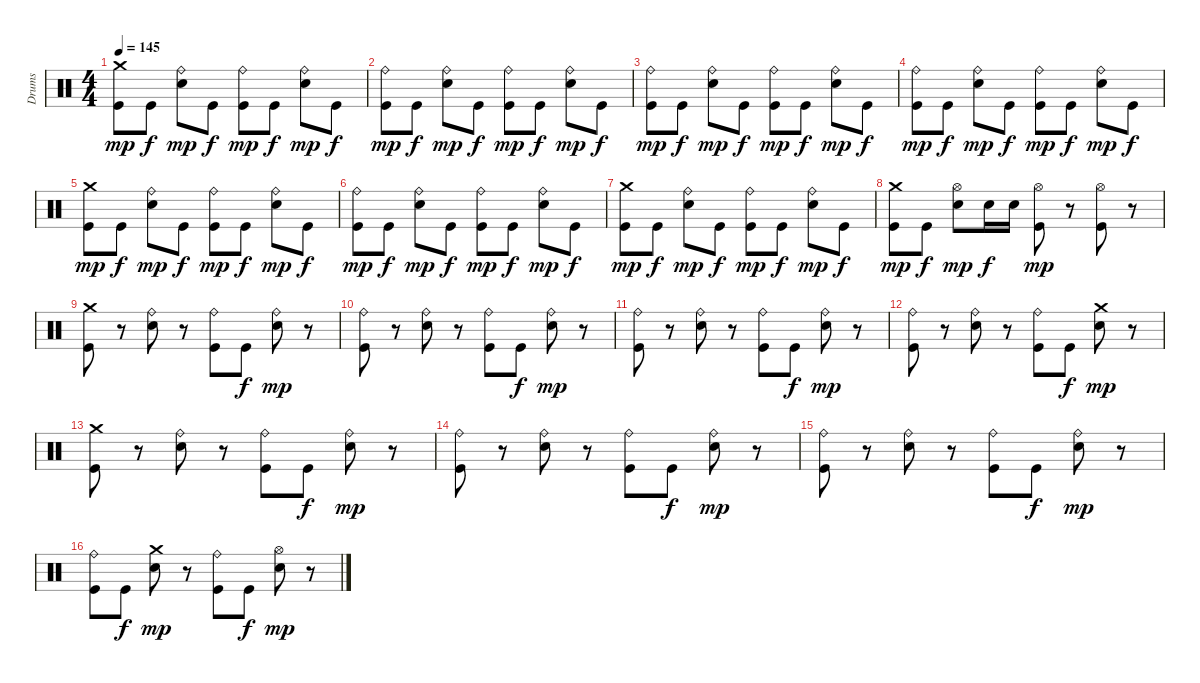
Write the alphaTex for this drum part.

\track ("Drums" "Drums") {instrument percussion}
\staff {score}
\articulation defaults
\ts (4 4)
\tempo 145
\clef neutral
\ks c
("Kick (hit)" "Crash medium (hit)").8{dy mp} "Kick (hit)".8{dy f} ("Snare (hit) 2" "Ride (bell)").8{dy mp} "Kick (hit)".8{dy f} ("Kick (hit)" "Ride (bell)").8{dy mp} "Kick (hit)".8{dy f} ("Snare (hit) 2" "Ride (bell)").8{dy mp} "Kick (hit)".8{dy f} |
("Kick (hit)" "Ride (bell)").8{dy mp} "Kick (hit)".8{dy f} ("Snare (hit) 2" "Ride (bell)").8{dy mp} "Kick (hit)".8{dy f} ("Kick (hit)" "Ride (bell)").8{dy mp} "Kick (hit)".8{dy f} ("Snare (hit) 2" "Ride (bell)").8{dy mp} "Kick (hit)".8{dy f} |
("Kick (hit)" "Ride (bell)").8{dy mp} "Kick (hit)".8{dy f} ("Snare (hit) 2" "Ride (bell)").8{dy mp} "Kick (hit)".8{dy f} ("Kick (hit)" "Ride (bell)").8{dy mp} "Kick (hit)".8{dy f} ("Snare (hit) 2" "Ride (bell)").8{dy mp} "Kick (hit)".8{dy f} |
("Kick (hit)" "Ride (bell)").8{dy mp} "Kick (hit)".8{dy f} ("Snare (hit) 2" "Ride (bell)").8{dy mp} "Kick (hit)".8{dy f} ("Kick (hit)" "Ride (bell)").8{dy mp} "Kick (hit)".8{dy f} ("Snare (hit) 2" "Ride (bell)").8{dy mp} "Kick (hit)".8{dy f} |
("Kick (hit)" "Crash medium (hit)").8{dy mp} "Kick (hit)".8{dy f} ("Snare (hit) 2" "Ride (bell)").8{dy mp} "Kick (hit)".8{dy f} ("Kick (hit)" "Ride (bell)").8{dy mp} "Kick (hit)".8{dy f} ("Snare (hit) 2" "Ride (bell)").8{dy mp} "Kick (hit)".8{dy f} |
("Kick (hit)" "Ride (bell)").8{dy mp} "Kick (hit)".8{dy f} ("Snare (hit) 2" "Ride (bell)").8{dy mp} "Kick (hit)".8{dy f} ("Kick (hit)" "Ride (bell)").8{dy mp} "Kick (hit)".8{dy f} ("Snare (hit) 2" "Ride (bell)").8{dy mp} "Kick (hit)".8{dy f} |
("Kick (hit)" "Crash medium (hit)").8{dy mp} "Kick (hit)".8{dy f} ("Snare (hit) 2" "Ride (bell)").8{dy mp} "Kick (hit)".8{dy f} ("Kick (hit)" "Ride (bell)").8{dy mp} "Kick (hit)".8{dy f} ("Snare (hit) 2" "Ride (bell)").8{dy mp} "Kick (hit)".8{dy f} |
("Kick (hit)" "Crash medium (hit)").8{dy mp} "Kick (hit)".8{dy f} ("Snare (hit) 2" "Hi-Hat (open)").8{dy mp} "Snare (hit) 2".16{dy f} "Snare (hit) 2".16 ("Kick (hit)" "Hi-Hat (open)").8{dy mp} r.8 ("Hi-Hat (open)" "Kick (hit)").8 r.8 |
("Kick (hit)" "Crash medium (hit)").8 r.8 ("Snare (hit) 2" "Ride (bell)").8 r.8 ("Kick (hit)" "Ride (bell)").8 "Kick (hit)".8{dy f} ("Snare (hit) 2" "Ride (bell)").8{dy mp} r.8 |
("Kick (hit)" "Ride (bell)").8 r.8 ("Snare (hit) 2" "Ride (bell)").8 r.8 ("Kick (hit)" "Ride (bell)").8 "Kick (hit)".8{dy f} ("Snare (hit) 2" "Ride (bell)").8{dy mp} r.8 |
("Kick (hit)" "Ride (bell)").8 r.8 ("Snare (hit) 2" "Ride (bell)").8 r.8 ("Kick (hit)" "Ride (bell)").8 "Kick (hit)".8{dy f} ("Snare (hit) 2" "Ride (bell)").8{dy mp} r.8 |
("Kick (hit)" "Ride (bell)").8 r.8 ("Snare (hit) 2" "Ride (bell)").8 r.8 ("Kick (hit)" "Ride (bell)").8 "Kick (hit)".8{dy f} ("Snare (hit) 2" "Crash medium (hit)").8{dy mp} r.8 |
("Kick (hit)" "Crash medium (hit)").8 r.8 ("Snare (hit) 2" "Ride (bell)").8 r.8 ("Kick (hit)" "Ride (bell)").8 "Kick (hit)".8{dy f} ("Snare (hit) 2" "Ride (bell)").8{dy mp} r.8 |
("Kick (hit)" "Ride (bell)").8 r.8 ("Snare (hit) 2" "Ride (bell)").8 r.8 ("Kick (hit)" "Ride (bell)").8 "Kick (hit)".8{dy f} ("Snare (hit) 2" "Ride (bell)").8{dy mp} r.8 |
("Kick (hit)" "Ride (bell)").8 r.8 ("Snare (hit) 2" "Ride (bell)").8 r.8 ("Kick (hit)" "Ride (bell)").8 "Kick (hit)".8{dy f} ("Snare (hit) 2" "Ride (bell)").8{dy mp} r.8 |
("Kick (hit)" "Ride (bell)").8 "Kick (hit)".8{dy f} ("Snare (hit) 2" "Crash medium (hit)").8{dy mp} r.8 ("Kick (hit)" "Ride (bell)").8 "Kick (hit)".8{dy f} ("Snare (hit) 2" "Hi-Hat (open)").8{dy mp} r.8
